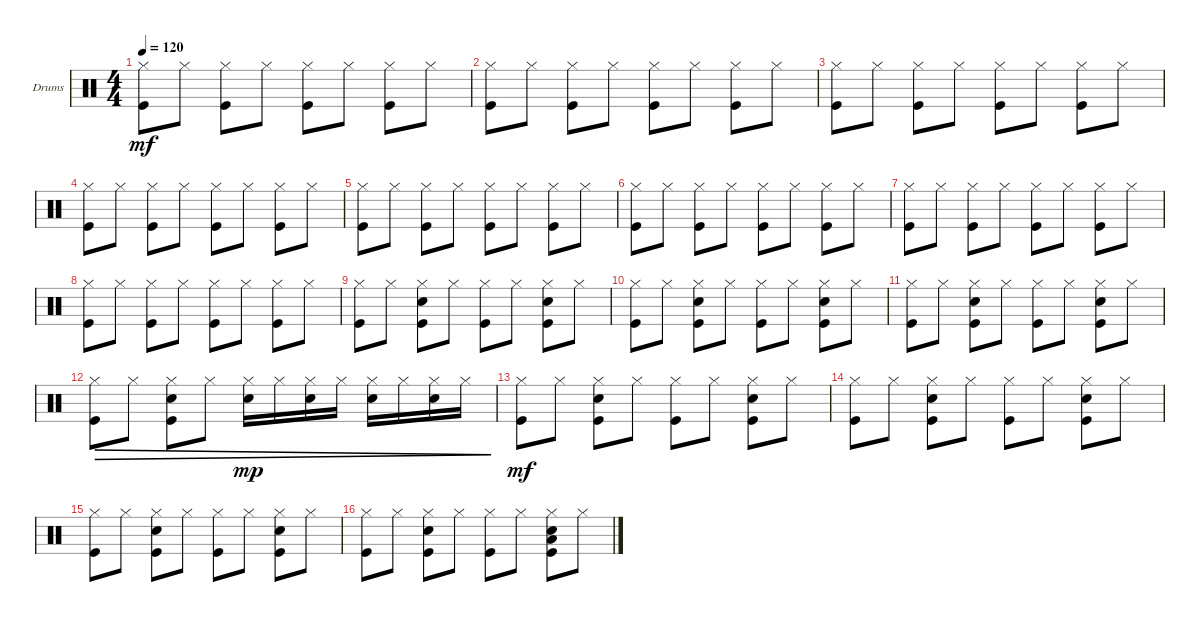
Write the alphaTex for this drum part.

\bracketExtendMode groupsimilarinstruments
\firstSystemTrackNameOrientation horizontal
\otherSystemsTrackNameOrientation horizontal
\track ("Drumkit" "Drums") {instrument percussion}
\staff {score}
\articulation defaults
\ts (4 4)
\tempo 120
\clef neutral
\ks c
("Kick (hit)" "Hi-Hat (closed)").8{dy mf} "Hi-Hat (closed)".8 ("Kick (hit)" "Hi-Hat (closed)").8 "Hi-Hat (closed)".8 ("Kick (hit)" "Hi-Hat (closed)").8 "Hi-Hat (closed)".8 ("Kick (hit)" "Hi-Hat (closed)").8 "Hi-Hat (closed)".8 |
("Kick (hit)" "Hi-Hat (closed)").8 "Hi-Hat (closed)".8 ("Kick (hit)" "Hi-Hat (closed)").8 "Hi-Hat (closed)".8 ("Kick (hit)" "Hi-Hat (closed)").8 "Hi-Hat (closed)".8 ("Kick (hit)" "Hi-Hat (closed)").8 "Hi-Hat (closed)".8 |
("Kick (hit)" "Hi-Hat (closed)").8 "Hi-Hat (closed)".8 ("Kick (hit)" "Hi-Hat (closed)").8 "Hi-Hat (closed)".8 ("Kick (hit)" "Hi-Hat (closed)").8 "Hi-Hat (closed)".8 ("Kick (hit)" "Hi-Hat (closed)").8 "Hi-Hat (closed)".8 |
("Kick (hit)" "Hi-Hat (closed)").8 "Hi-Hat (closed)".8 ("Kick (hit)" "Hi-Hat (closed)").8 "Hi-Hat (closed)".8 ("Kick (hit)" "Hi-Hat (closed)").8 "Hi-Hat (closed)".8 ("Kick (hit)" "Hi-Hat (closed)").8 "Hi-Hat (closed)".8 |
("Kick (hit)" "Hi-Hat (closed)").8 "Hi-Hat (closed)".8 ("Kick (hit)" "Hi-Hat (closed)").8 "Hi-Hat (closed)".8 ("Kick (hit)" "Hi-Hat (closed)").8 "Hi-Hat (closed)".8 ("Kick (hit)" "Hi-Hat (closed)").8 "Hi-Hat (closed)".8 |
("Kick (hit)" "Hi-Hat (closed)").8 "Hi-Hat (closed)".8 ("Kick (hit)" "Hi-Hat (closed)").8 "Hi-Hat (closed)".8 ("Kick (hit)" "Hi-Hat (closed)").8 "Hi-Hat (closed)".8 ("Kick (hit)" "Hi-Hat (closed)").8 "Hi-Hat (closed)".8 |
("Kick (hit)" "Hi-Hat (closed)").8 "Hi-Hat (closed)".8 ("Kick (hit)" "Hi-Hat (closed)").8 "Hi-Hat (closed)".8 ("Kick (hit)" "Hi-Hat (closed)").8 "Hi-Hat (closed)".8 ("Kick (hit)" "Hi-Hat (closed)").8 "Hi-Hat (closed)".8 |
("Kick (hit)" "Hi-Hat (closed)").8 "Hi-Hat (closed)".8 ("Kick (hit)" "Hi-Hat (closed)").8 "Hi-Hat (closed)".8 ("Kick (hit)" "Hi-Hat (closed)").8 "Hi-Hat (closed)".8 ("Kick (hit)" "Hi-Hat (closed)").8 "Hi-Hat (closed)".8 |
("Kick (hit)" "Hi-Hat (closed)").8 "Hi-Hat (closed)".8 ("Kick (hit)" "Hi-Hat (closed)" "Snare (hit) 2").8 "Hi-Hat (closed)".8 ("Kick (hit)" "Hi-Hat (closed)").8 "Hi-Hat (closed)".8 ("Kick (hit)" "Hi-Hat (closed)" "Snare (hit) 2").8 "Hi-Hat (closed)".8 |
("Kick (hit)" "Hi-Hat (closed)").8 "Hi-Hat (closed)".8 ("Kick (hit)" "Hi-Hat (closed)" "Snare (hit) 2").8 "Hi-Hat (closed)".8 ("Kick (hit)" "Hi-Hat (closed)").8 "Hi-Hat (closed)".8 ("Kick (hit)" "Hi-Hat (closed)" "Snare (hit) 2").8 "Hi-Hat (closed)".8 |
("Kick (hit)" "Hi-Hat (closed)").8 "Hi-Hat (closed)".8 ("Kick (hit)" "Hi-Hat (closed)" "Snare (hit) 2").8 "Hi-Hat (closed)".8 ("Kick (hit)" "Hi-Hat (closed)").8 "Hi-Hat (closed)".8 ("Kick (hit)" "Hi-Hat (closed)" "Snare (hit) 2").8 "Hi-Hat (closed)".8 |
("Kick (hit)" "Hi-Hat (closed)").8{dec} "Hi-Hat (closed)".8{dec} ("Kick (hit)" "Hi-Hat (closed)" "Snare (hit) 2").8{dec} "Hi-Hat (closed)".8{dec} ("Hi-Hat (closed)" "Snare (hit) 2").16{dec dy mp} "Hi-Hat (closed)".16{dec} ("Hi-Hat (closed)" "Snare (hit) 2").16{dec} "Hi-Hat (closed)".16{dec} ("Hi-Hat (closed)" "Snare (hit) 2").16{dec} "Hi-Hat (closed)".16{dec} ("Hi-Hat (closed)" "Snare (hit) 2").16{dec} "Hi-Hat (closed)".16{dec} |
("Kick (hit)" "Hi-Hat (closed)").8{dy mf} "Hi-Hat (closed)".8 ("Kick (hit)" "Hi-Hat (closed)" "Snare (hit) 2").8 "Hi-Hat (closed)".8 ("Kick (hit)" "Hi-Hat (closed)").8 "Hi-Hat (closed)".8 ("Kick (hit)" "Hi-Hat (closed)" "Snare (hit) 2").8 "Hi-Hat (closed)".8 |
("Kick (hit)" "Hi-Hat (closed)").8 "Hi-Hat (closed)".8 ("Kick (hit)" "Hi-Hat (closed)" "Snare (hit) 2").8 "Hi-Hat (closed)".8 ("Kick (hit)" "Hi-Hat (closed)").8 "Hi-Hat (closed)".8 ("Kick (hit)" "Hi-Hat (closed)" "Snare (hit) 2").8 "Hi-Hat (closed)".8 |
("Kick (hit)" "Hi-Hat (closed)").8 "Hi-Hat (closed)".8 ("Kick (hit)" "Hi-Hat (closed)" "Snare (hit) 2").8 "Hi-Hat (closed)".8 ("Kick (hit)" "Hi-Hat (closed)").8 "Hi-Hat (closed)".8 ("Kick (hit)" "Hi-Hat (closed)" "Snare (hit) 2").8 "Hi-Hat (closed)".8 |
("Kick (hit)" "Hi-Hat (closed)").8 "Hi-Hat (closed)".8 ("Kick (hit)" "Hi-Hat (closed)" "Snare (hit) 2").8 "Hi-Hat (closed)".8 ("Kick (hit)" "Hi-Hat (closed)").8 "Hi-Hat (closed)".8 ("Kick (hit)" "Hi-Hat (closed)" "Snare (hit) 2" "Low Tom (hit)").8 "Hi-Hat (closed)".8
